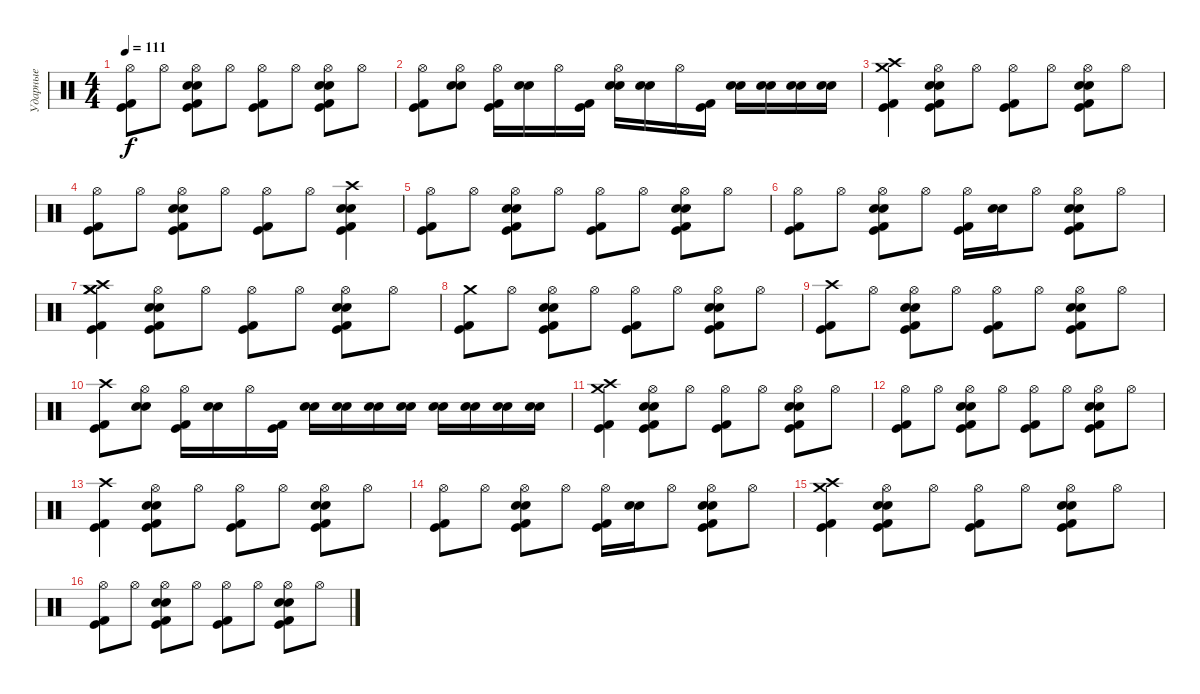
\track ("Ударные" "Ударные") {instrument percussion}
\staff {score}
\articulation defaults
\ts (4 4)
\tempo 111
\clef neutral
\ks c
("Hi-Hat (open)" "Kick (hit)" "Kick (hit) 2").8{dy f} "Hi-Hat (open)".8 ("Hi-Hat (open)" "Kick (hit)" "Kick (hit) 2" "Snare (hit) 2" "Electric Snare (hit)").8 "Hi-Hat (open)".8 ("Hi-Hat (open)" "Kick (hit)" "Kick (hit) 2").8 "Hi-Hat (open)".8 ("Hi-Hat (open)" "Kick (hit)" "Kick (hit) 2" "Snare (hit) 2" "Electric Snare (hit)").8 "Hi-Hat (open)".8 |
("Hi-Hat (open)" "Kick (hit)" "Kick (hit) 2").8 ("Hi-Hat (open)" "Snare (hit) 2" "Electric Snare (hit)").8 ("Hi-Hat (open)" "Kick (hit)" "Kick (hit) 2").16 ("Snare (hit) 2" "Electric Snare (hit)").16 "Hi-Hat (open)".16 ("Kick (hit)" "Kick (hit) 2").16 ("Hi-Hat (open)" "Snare (hit) 2" "Electric Snare (hit)").16 ("Snare (hit) 2" "Electric Snare (hit)").16 "Hi-Hat (open)".16 ("Kick (hit)" "Kick (hit) 2").16 ("Snare (hit) 2" "Electric Snare (hit)").16 ("Snare (hit) 2" "Electric Snare (hit)").16 ("Snare (hit) 2" "Electric Snare (hit)").16 ("Snare (hit) 2" "Electric Snare (hit)").16 |
("Crash high (hit)" "Kick (hit)" "Kick (hit) 2" "Crash medium (hit)").4 ("Hi-Hat (open)" "Kick (hit)" "Kick (hit) 2" "Snare (hit) 2" "Electric Snare (hit)").8 "Hi-Hat (open)".8 ("Hi-Hat (open)" "Kick (hit)" "Kick (hit) 2").8 "Hi-Hat (open)".8 ("Hi-Hat (open)" "Kick (hit)" "Kick (hit) 2" "Snare (hit) 2" "Electric Snare (hit)").8 "Hi-Hat (open)".8 |
("Hi-Hat (open)" "Kick (hit)" "Kick (hit) 2").8 "Hi-Hat (open)".8 ("Hi-Hat (open)" "Kick (hit)" "Kick (hit) 2" "Snare (hit) 2" "Electric Snare (hit)").8 "Hi-Hat (open)".8 ("Hi-Hat (open)" "Kick (hit)" "Kick (hit) 2").8 "Hi-Hat (open)".8 ("Crash high (hit)" "Kick (hit)" "Kick (hit) 2" "Snare (hit) 2" "Electric Snare (hit)").4 |
("Hi-Hat (open)" "Kick (hit)" "Kick (hit) 2").8 "Hi-Hat (open)".8 ("Hi-Hat (open)" "Kick (hit)" "Kick (hit) 2" "Snare (hit) 2" "Electric Snare (hit)").8 "Hi-Hat (open)".8 ("Hi-Hat (open)" "Kick (hit)" "Kick (hit) 2").8 "Hi-Hat (open)".8 ("Hi-Hat (open)" "Kick (hit)" "Kick (hit) 2" "Snare (hit) 2" "Electric Snare (hit)").8 "Hi-Hat (open)".8 |
("Hi-Hat (open)" "Kick (hit)" "Kick (hit) 2").8 "Hi-Hat (open)".8 ("Hi-Hat (open)" "Kick (hit)" "Kick (hit) 2" "Snare (hit) 2" "Electric Snare (hit)").8 "Hi-Hat (open)".8 ("Hi-Hat (open)" "Kick (hit)" "Kick (hit) 2").16 ("Snare (hit) 2" "Electric Snare (hit)").16 "Hi-Hat (open)".8 ("Hi-Hat (open)" "Kick (hit)" "Kick (hit) 2" "Snare (hit) 2" "Electric Snare (hit)").8 "Hi-Hat (open)".8 |
("Crash high (hit)" "Kick (hit)" "Kick (hit) 2" "Crash medium (hit)" "Crash medium (hit)").4 ("Hi-Hat (open)" "Kick (hit)" "Kick (hit) 2" "Snare (hit) 2" "Electric Snare (hit)").8 "Hi-Hat (open)".8 ("Hi-Hat (open)" "Kick (hit)" "Kick (hit) 2").8 "Hi-Hat (open)".8 ("Hi-Hat (open)" "Kick (hit)" "Kick (hit) 2" "Snare (hit) 2" "Electric Snare (hit)").8 "Hi-Hat (open)".8 |
("Crash medium (hit)" "Kick (hit)" "Kick (hit) 2").8 "Hi-Hat (open)".8 ("Hi-Hat (open)" "Kick (hit)" "Kick (hit) 2" "Snare (hit) 2" "Electric Snare (hit)").8 "Hi-Hat (open)".8 ("Hi-Hat (open)" "Kick (hit)" "Kick (hit) 2").8 "Hi-Hat (open)".8 ("Hi-Hat (open)" "Kick (hit)" "Kick (hit) 2" "Snare (hit) 2" "Electric Snare (hit)").8 "Hi-Hat (open)".8 |
("Crash high (hit)" "Kick (hit)" "Kick (hit) 2").8 "Hi-Hat (open)".8 ("Hi-Hat (open)" "Kick (hit)" "Kick (hit) 2" "Snare (hit) 2" "Electric Snare (hit)").8 "Hi-Hat (open)".8 ("Hi-Hat (open)" "Kick (hit)" "Kick (hit) 2").8 "Hi-Hat (open)".8 ("Hi-Hat (open)" "Kick (hit)" "Kick (hit) 2" "Snare (hit) 2" "Electric Snare (hit)").8 "Hi-Hat (open)".8 |
("Crash high (hit)" "Kick (hit)" "Kick (hit) 2").8 ("Hi-Hat (open)" "Snare (hit) 2" "Electric Snare (hit)").8 ("Hi-Hat (open)" "Kick (hit)" "Kick (hit) 2").16 ("Snare (hit) 2" "Electric Snare (hit)").16 "Hi-Hat (open)".16 ("Kick (hit)" "Kick (hit) 2").16 ("Snare (hit) 2" "Electric Snare (hit)").16 ("Snare (hit) 2" "Electric Snare (hit)").16 ("Snare (hit) 2" "Electric Snare (hit)").16 ("Snare (hit) 2" "Electric Snare (hit)").16 ("Snare (hit) 2" "Electric Snare (hit)").16 ("Snare (hit) 2" "Electric Snare (hit)").16 ("Snare (hit) 2" "Electric Snare (hit)").16 ("Snare (hit) 2" "Electric Snare (hit)").16 |
("Crash high (hit)" "Kick (hit)" "Kick (hit) 2" "Crash medium (hit)").4 ("Hi-Hat (open)" "Kick (hit)" "Kick (hit) 2" "Snare (hit) 2" "Electric Snare (hit)").8 "Hi-Hat (open)".8 ("Hi-Hat (open)" "Kick (hit)" "Kick (hit) 2").8 "Hi-Hat (open)".8 ("Hi-Hat (open)" "Kick (hit)" "Kick (hit) 2" "Snare (hit) 2" "Electric Snare (hit)").8 "Hi-Hat (open)".8 |
("Hi-Hat (open)" "Kick (hit)" "Kick (hit) 2").8 "Hi-Hat (open)".8 ("Hi-Hat (open)" "Kick (hit)" "Kick (hit) 2" "Snare (hit) 2" "Electric Snare (hit)").8 "Hi-Hat (open)".8 ("Hi-Hat (open)" "Kick (hit)" "Kick (hit) 2").8 "Hi-Hat (open)".8 ("Hi-Hat (open)" "Kick (hit)" "Kick (hit) 2" "Snare (hit) 2" "Electric Snare (hit)").8 "Hi-Hat (open)".8 |
("Crash high (hit)" "Kick (hit)" "Kick (hit) 2").4 ("Hi-Hat (open)" "Kick (hit)" "Kick (hit) 2" "Snare (hit) 2" "Electric Snare (hit)").8 "Hi-Hat (open)".8 ("Hi-Hat (open)" "Kick (hit)" "Kick (hit) 2").8 "Hi-Hat (open)".8 ("Hi-Hat (open)" "Kick (hit)" "Kick (hit) 2" "Snare (hit) 2" "Electric Snare (hit)").8 "Hi-Hat (open)".8 |
("Hi-Hat (open)" "Kick (hit)" "Kick (hit) 2").8 "Hi-Hat (open)".8 ("Hi-Hat (open)" "Kick (hit)" "Kick (hit) 2" "Snare (hit) 2" "Electric Snare (hit)").8 "Hi-Hat (open)".8 ("Hi-Hat (open)" "Kick (hit)" "Kick (hit) 2").16 ("Snare (hit) 2" "Electric Snare (hit)").16 "Hi-Hat (open)".8 ("Hi-Hat (open)" "Kick (hit)" "Kick (hit) 2" "Snare (hit) 2" "Electric Snare (hit)").8 "Hi-Hat (open)".8 |
("Crash high (hit)" "Kick (hit)" "Kick (hit) 2" "Crash medium (hit)").4 ("Hi-Hat (open)" "Kick (hit)" "Kick (hit) 2" "Snare (hit) 2" "Electric Snare (hit)").8 "Hi-Hat (open)".8 ("Hi-Hat (open)" "Kick (hit)" "Kick (hit) 2").8 "Hi-Hat (open)".8 ("Hi-Hat (open)" "Kick (hit)" "Kick (hit) 2" "Snare (hit) 2" "Electric Snare (hit)").8 "Hi-Hat (open)".8 |
("Hi-Hat (open)" "Kick (hit)" "Kick (hit) 2").8 "Hi-Hat (open)".8 ("Hi-Hat (open)" "Kick (hit)" "Kick (hit) 2" "Snare (hit) 2" "Electric Snare (hit)").8 "Hi-Hat (open)".8 ("Hi-Hat (open)" "Kick (hit)" "Kick (hit) 2").8 "Hi-Hat (open)".8 ("Hi-Hat (open)" "Kick (hit)" "Kick (hit) 2" "Snare (hit) 2" "Electric Snare (hit)").8 "Hi-Hat (open)".8
